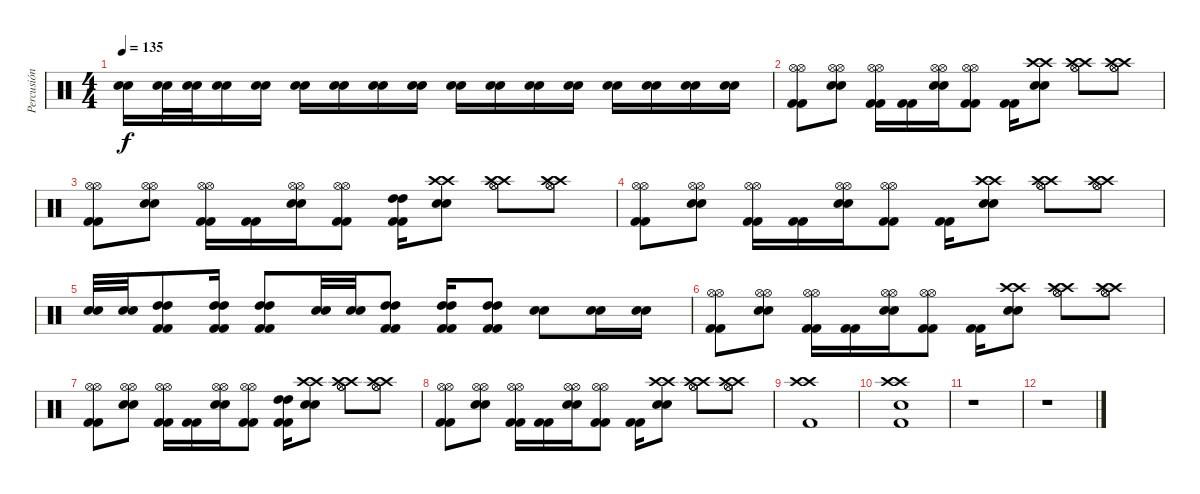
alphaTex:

\track ("Percusión" "Percusión") {instrument percussion}
\staff {score}
\articulation defaults
\ts (4 4)
\tempo 135
\clef neutral
\ks c
("Snare (hit) 2" "Snare (hit) 2").16{dy f} ("Snare (hit) 2" "Snare (hit) 2").32 ("Snare (hit) 2" "Snare (hit) 2").32 ("Snare (hit) 2" "Snare (hit) 2").16 ("Snare (hit) 2" "Snare (hit) 2").16 ("Snare (hit) 2" "Snare (hit) 2").16 ("Snare (hit) 2" "Snare (hit) 2").16 ("Snare (hit) 2" "Snare (hit) 2").16 ("Snare (hit) 2" "Snare (hit) 2").16 ("Snare (hit) 2" "Snare (hit) 2").16 ("Snare (hit) 2" "Snare (hit) 2").16 ("Snare (hit) 2" "Snare (hit) 2").16 ("Snare (hit) 2" "Snare (hit) 2").16 ("Snare (hit) 2" "Snare (hit) 2").16 ("Snare (hit) 2" "Snare (hit) 2").16 ("Snare (hit) 2" "Snare (hit) 2").16 ("Snare (hit) 2" "Snare (hit) 2").16 |
("Kick (hit) 2" "Kick (hit) 2" "Hi-Hat (open)" "Hi-Hat (open)").8 ("Snare (hit) 2" "Snare (hit) 2" "Hi-Hat (open)" "Hi-Hat (open)").8 ("Kick (hit) 2" "Kick (hit) 2" "Hi-Hat (open)" "Hi-Hat (open)").16 ("Kick (hit) 2" "Kick (hit) 2").16 ("Snare (hit) 2" "Snare (hit) 2" "Hi-Hat (open)" "Hi-Hat (open)").16 ("Kick (hit) 2" "Kick (hit) 2" "Hi-Hat (open)" "Hi-Hat (open)").8 ("Kick (hit) 2" "Kick (hit) 2").16 ("Snare (hit) 2" "Snare (hit) 2" "Crash high (hit)" "Crash high (hit)").8 ("Crash high (hit)" "Crash high (hit)" "Hi-Hat (open)" "Hi-Hat (open)").8 ("Crash high (hit)" "Crash high (hit)" "Hi-Hat (open)" "Hi-Hat (open)").8 |
("Kick (hit) 2" "Kick (hit) 2" "Hi-Hat (open)" "Hi-Hat (open)").8 ("Snare (hit) 2" "Snare (hit) 2" "Hi-Hat (open)" "Hi-Hat (open)").8 ("Kick (hit) 2" "Kick (hit) 2" "Hi-Hat (open)" "Hi-Hat (open)").16 ("Kick (hit) 2" "Kick (hit) 2").16 ("Snare (hit) 2" "Snare (hit) 2" "Hi-Hat (open)" "Hi-Hat (open)").16 ("Kick (hit) 2" "Kick (hit) 2" "Hi-Hat (open)" "Hi-Hat (open)").8 ("Kick (hit) 2" "Kick (hit) 2" "High Tom (hit)" "High Tom (hit)").16 ("Snare (hit) 2" "Snare (hit) 2" "Crash high (hit)" "Crash high (hit)").8 ("Crash high (hit)" "Crash high (hit)" "Hi-Hat (open)" "Hi-Hat (open)").8 ("Crash high (hit)" "Crash high (hit)" "Hi-Hat (open)" "Hi-Hat (open)").8 |
("Kick (hit) 2" "Kick (hit) 2" "Hi-Hat (open)" "Hi-Hat (open)").8 ("Snare (hit) 2" "Snare (hit) 2" "Hi-Hat (open)" "Hi-Hat (open)").8 ("Kick (hit) 2" "Kick (hit) 2" "Hi-Hat (open)" "Hi-Hat (open)").16 ("Kick (hit) 2" "Kick (hit) 2").16 ("Snare (hit) 2" "Snare (hit) 2" "Hi-Hat (open)" "Hi-Hat (open)").16 ("Kick (hit) 2" "Kick (hit) 2" "Hi-Hat (open)" "Hi-Hat (open)").8 ("Kick (hit) 2" "Kick (hit) 2").16 ("Snare (hit) 2" "Snare (hit) 2" "Crash high (hit)" "Crash high (hit)").8 ("Crash high (hit)" "Crash high (hit)" "Hi-Hat (open)" "Hi-Hat (open)").8 ("Crash high (hit)" "Crash high (hit)" "Hi-Hat (open)" "Hi-Hat (open)").8 |
("Snare (hit) 2" "Snare (hit) 2").32 ("Snare (hit) 2" "Snare (hit) 2").32 ("Kick (hit) 2" "Kick (hit) 2" "High Tom (hit)" "High Tom (hit)").8 ("Kick (hit) 2" "Kick (hit) 2" "High Tom (hit)" "High Tom (hit)").16 ("Kick (hit) 2" "Kick (hit) 2" "High Tom (hit)" "High Tom (hit)").8 ("Snare (hit) 2" "Snare (hit) 2").32 ("Snare (hit) 2" "Snare (hit) 2").32 ("Kick (hit) 2" "Kick (hit) 2" "High Tom (hit)" "High Tom (hit)").8 ("Kick (hit) 2" "Kick (hit) 2" "High Tom (hit)" "High Tom (hit)").16 ("Kick (hit) 2" "Kick (hit) 2" "High Tom (hit)" "High Tom (hit)").8 ("Snare (hit) 2" "Snare (hit) 2").8 ("Snare (hit) 2" "Snare (hit) 2").16 ("Snare (hit) 2" "Snare (hit) 2").16 |
("Kick (hit) 2" "Kick (hit) 2" "Hi-Hat (open)" "Hi-Hat (open)").8 ("Snare (hit) 2" "Snare (hit) 2" "Hi-Hat (open)" "Hi-Hat (open)").8 ("Kick (hit) 2" "Kick (hit) 2" "Hi-Hat (open)" "Hi-Hat (open)").16 ("Kick (hit) 2" "Kick (hit) 2").16 ("Snare (hit) 2" "Snare (hit) 2" "Hi-Hat (open)" "Hi-Hat (open)").16 ("Kick (hit) 2" "Kick (hit) 2" "Hi-Hat (open)" "Hi-Hat (open)").8 ("Kick (hit) 2" "Kick (hit) 2").16 ("Snare (hit) 2" "Snare (hit) 2" "Crash high (hit)" "Crash high (hit)").8 ("Crash high (hit)" "Crash high (hit)" "Hi-Hat (open)" "Hi-Hat (open)").8 ("Crash high (hit)" "Crash high (hit)" "Hi-Hat (open)" "Hi-Hat (open)").8 |
("Kick (hit) 2" "Kick (hit) 2" "Hi-Hat (open)" "Hi-Hat (open)").8 ("Snare (hit) 2" "Snare (hit) 2" "Hi-Hat (open)" "Hi-Hat (open)").8 ("Kick (hit) 2" "Kick (hit) 2" "Hi-Hat (open)" "Hi-Hat (open)").16 ("Kick (hit) 2" "Kick (hit) 2").16 ("Snare (hit) 2" "Snare (hit) 2" "Hi-Hat (open)" "Hi-Hat (open)").16 ("Kick (hit) 2" "Kick (hit) 2" "Hi-Hat (open)" "Hi-Hat (open)").8 ("Kick (hit) 2" "Kick (hit) 2" "High Tom (hit)" "High Tom (hit)").16 ("Snare (hit) 2" "Snare (hit) 2" "Crash high (hit)" "Crash high (hit)").8 ("Crash high (hit)" "Crash high (hit)" "Hi-Hat (open)" "Hi-Hat (open)").8 ("Crash high (hit)" "Crash high (hit)" "Hi-Hat (open)" "Hi-Hat (open)").8 |
("Kick (hit) 2" "Kick (hit) 2" "Hi-Hat (open)" "Hi-Hat (open)").8 ("Snare (hit) 2" "Snare (hit) 2" "Hi-Hat (open)" "Hi-Hat (open)").8 ("Kick (hit) 2" "Kick (hit) 2" "Hi-Hat (open)" "Hi-Hat (open)").16 ("Kick (hit) 2" "Kick (hit) 2").16 ("Snare (hit) 2" "Snare (hit) 2" "Hi-Hat (open)" "Hi-Hat (open)").16 ("Kick (hit) 2" "Kick (hit) 2" "Hi-Hat (open)" "Hi-Hat (open)").8 ("Kick (hit) 2" "Kick (hit) 2").16 ("Snare (hit) 2" "Snare (hit) 2" "Crash high (hit)" "Crash high (hit)").8 ("Crash high (hit)" "Crash high (hit)" "Hi-Hat (open)" "Hi-Hat (open)").8 ("Crash high (hit)" "Crash high (hit)" "Hi-Hat (open)" "Hi-Hat (open)").8 |
("Crash high (hit)" "Crash high (hit)" "Kick (hit) 2").1 |
("Crash high (hit)" "Crash high (hit)" "Snare (hit) 2" "Kick (hit) 2").1 |
r.1 |
r.1
